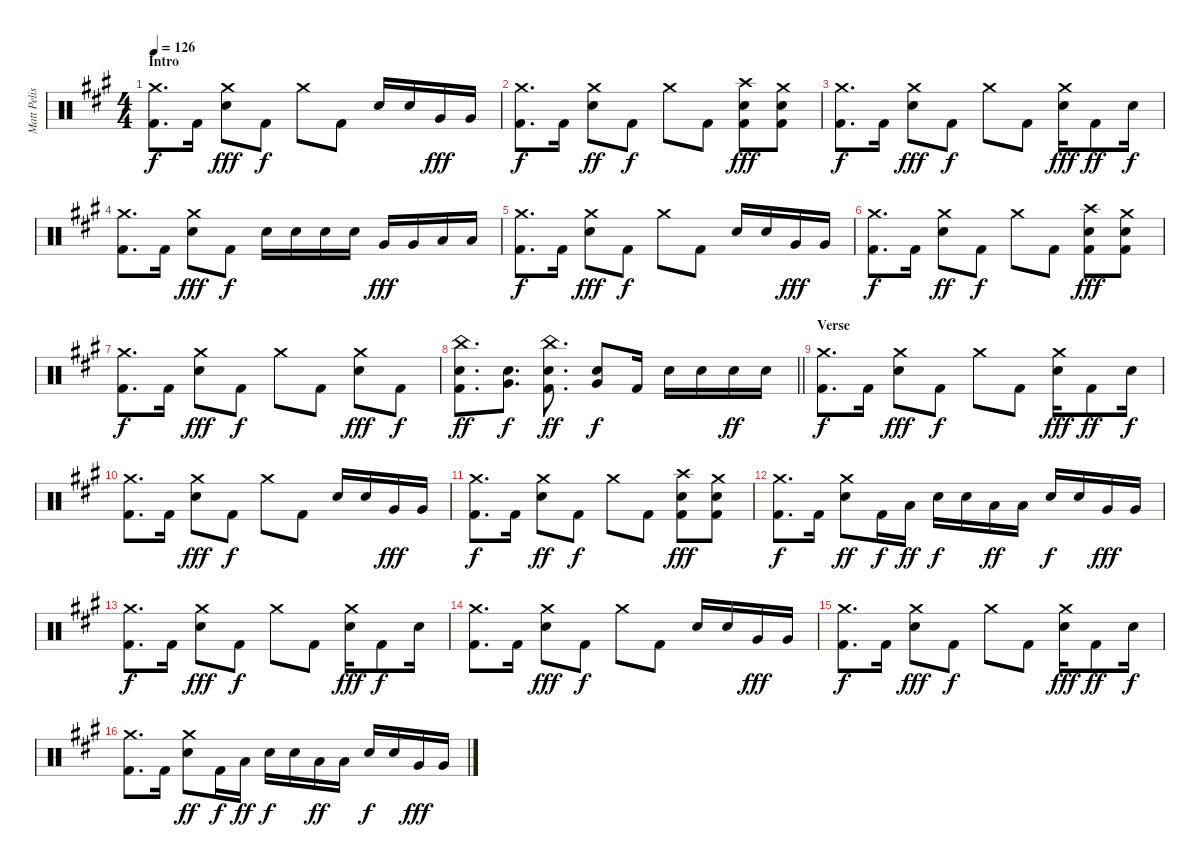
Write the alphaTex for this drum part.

\track ("Matt Pelissier" "Matt Pelis") {instrument percussion}
\staff {score}
\articulation defaults
\ts (4 4)
\section ("" "Intro")
\tempo 126
\clef neutral
\ks a
("Crash medium (hit)" "Kick (hit) 2").8{d dy f} "Kick (hit) 2".16 ("Crash medium (hit)" "Snare (hit) 2").8{dy fff} "Kick (hit) 2".8{dy f} "Crash medium (hit)".8 "Kick (hit) 2".8 "Snare (hit) 2".16 "Snare (hit) 2".16 "Very Low Tom (hit)".16{dy fff} "Very Low Tom (hit)".16 |
("Crash medium (hit)" "Kick (hit) 2").8{d dy f} "Kick (hit) 2".16 ("Crash medium (hit)" "Snare (hit) 2").8{dy ff} "Kick (hit) 2".8{dy f} "Crash medium (hit)".8 "Kick (hit) 2".8 ("Crash high (hit)" "Snare (hit) 2" "Kick (hit) 2").8{dy fff} ("Crash medium (hit)" "Snare (hit) 2" "Kick (hit) 2").8 |
("Crash medium (hit)" "Kick (hit) 2").8{d dy f} "Kick (hit) 2".16 ("Crash medium (hit)" "Snare (hit) 2").8{dy fff} "Kick (hit) 2".8{dy f} "Crash medium (hit)".8 "Kick (hit) 2".8 ("Crash medium (hit)" "Snare (hit) 2").16{dy fff} "Kick (hit) 2".8{dy ff} "Snare (hit) 2".16{dy f} |
("Crash medium (hit)" "Kick (hit) 2").8{d} "Kick (hit) 2".16 ("Crash medium (hit)" "Snare (hit) 2").8{dy fff} "Kick (hit) 2".8{dy f} "Snare (hit) 2".16 "Snare (hit) 2".16 "Snare (hit) 2".16 "Snare (hit) 2".16 "Very Low Tom (hit)".16{dy fff} "Very Low Tom (hit)".16 "Low Floor Tom (hit)".16 "Low Floor Tom (hit)".16 |
("Crash medium (hit)" "Kick (hit) 2").8{d dy f} "Kick (hit) 2".16 ("Crash medium (hit)" "Snare (hit) 2").8{dy fff} "Kick (hit) 2".8{dy f} "Crash medium (hit)".8 "Kick (hit) 2".8 "Snare (hit) 2".16 "Snare (hit) 2".16 "Very Low Tom (hit)".16{dy fff} "Very Low Tom (hit)".16 |
("Crash medium (hit)" "Kick (hit) 2").8{d dy f} "Kick (hit) 2".16 ("Crash medium (hit)" "Snare (hit) 2").8{dy ff} "Kick (hit) 2".8{dy f} "Crash medium (hit)".8 "Kick (hit) 2".8 ("Crash high (hit)" "Snare (hit) 2" "Kick (hit) 2").8{dy fff} ("Crash medium (hit)" "Snare (hit) 2" "Kick (hit) 2").8 |
("Crash medium (hit)" "Kick (hit) 2").8{d dy f} "Kick (hit) 2".16 ("Crash medium (hit)" "Snare (hit) 2").8{dy fff} "Kick (hit) 2".8{dy f} "Crash medium (hit)".8 "Kick (hit) 2".8 ("Crash medium (hit)" "Snare (hit) 2").8{dy fff} "Kick (hit) 2".8{dy f} |
\barLineRight lightlight
("China (hit)" "Snare (hit) 2" "Kick (hit) 2").8{d dy ff} ("Snare (hit) 2" "Very Low Tom (hit)").8{d dy f} ("China (hit)" "Snare (hit) 2" "Kick (hit) 2").8{d dy ff} ("Snare (hit) 2" "Very Low Tom (hit)").8{dy f} "Kick (hit) 2".16 "Snare (hit) 2".16 "Snare (hit) 2".16 "Snare (hit) 2".16{dy ff} "Snare (hit) 2".16 |
\section ("" "Verse")
("Crash medium (hit)" "Kick (hit) 2").8{d dy f} "Kick (hit) 2".16 ("Crash medium (hit)" "Snare (hit) 2").8{dy fff} "Kick (hit) 2".8{dy f} "Crash medium (hit)".8 "Kick (hit) 2".8 ("Crash medium (hit)" "Snare (hit) 2").16{dy fff} "Kick (hit) 2".8{dy ff} "Snare (hit) 2".16{dy f} |
("Crash medium (hit)" "Kick (hit) 2").8{d} "Kick (hit) 2".16 ("Crash medium (hit)" "Snare (hit) 2").8{dy fff} "Kick (hit) 2".8{dy f} "Crash medium (hit)".8 "Kick (hit) 2".8 "Snare (hit) 2".16 "Snare (hit) 2".16 "Very Low Tom (hit)".16{dy fff} "Very Low Tom (hit)".16 |
("Crash medium (hit)" "Kick (hit) 2").8{d dy f} "Kick (hit) 2".16 ("Crash medium (hit)" "Snare (hit) 2").8{dy ff} "Kick (hit) 2".8{dy f} "Crash medium (hit)".8 "Kick (hit) 2".8 ("Crash high (hit)" "Snare (hit) 2" "Kick (hit) 2").8{dy fff} ("Crash medium (hit)" "Snare (hit) 2" "Kick (hit) 2").8 |
("Crash medium (hit)" "Kick (hit) 2").8{d dy f} "Kick (hit) 2".16 ("Crash medium (hit)" "Snare (hit) 2").8{dy ff} "Kick (hit) 2".16{dy f} "Low Tom (hit)".16{dy ff} "Snare (hit) 2".16{dy f} "Snare (hit) 2".16 "Low Tom (hit)".16{dy ff} "Low Tom (hit)".16 "Snare (hit) 2".16{dy f} "Snare (hit) 2".16 "Very Low Tom (hit)".16{dy fff} "Very Low Tom (hit)".16 |
("Crash medium (hit)" "Kick (hit) 2").8{d dy f} "Kick (hit) 2".16 ("Crash medium (hit)" "Snare (hit) 2").8{dy fff} "Kick (hit) 2".8{dy f} "Crash medium (hit)".8 "Kick (hit) 2".8 ("Crash medium (hit)" "Snare (hit) 2").16{dy fff} "Kick (hit) 2".8{dy f} "Snare (hit) 2".16 |
("Crash medium (hit)" "Kick (hit) 2").8{d} "Kick (hit) 2".16 ("Crash medium (hit)" "Snare (hit) 2").8{dy fff} "Kick (hit) 2".8{dy f} "Crash medium (hit)".8 "Kick (hit) 2".8 "Snare (hit) 2".16 "Snare (hit) 2".16 "Very Low Tom (hit)".16{dy fff} "Very Low Tom (hit)".16 |
("Crash medium (hit)" "Kick (hit) 2").8{d dy f} "Kick (hit) 2".16 ("Crash medium (hit)" "Snare (hit) 2").8{dy fff} "Kick (hit) 2".8{dy f} "Crash medium (hit)".8 "Kick (hit) 2".8 ("Crash medium (hit)" "Snare (hit) 2").16{dy fff} "Kick (hit) 2".8{dy ff} "Snare (hit) 2".16{dy f} |
("Crash medium (hit)" "Kick (hit) 2").8{d} "Kick (hit) 2".16 ("Crash medium (hit)" "Snare (hit) 2").8{dy ff} "Kick (hit) 2".16{dy f} "Low Tom (hit)".16{dy ff} "Snare (hit) 2".16{dy f} "Snare (hit) 2".16 "Low Tom (hit)".16{dy ff} "Low Tom (hit)".16 "Snare (hit) 2".16{dy f} "Snare (hit) 2".16 "Very Low Tom (hit)".16{dy fff} "Very Low Tom (hit)".16
